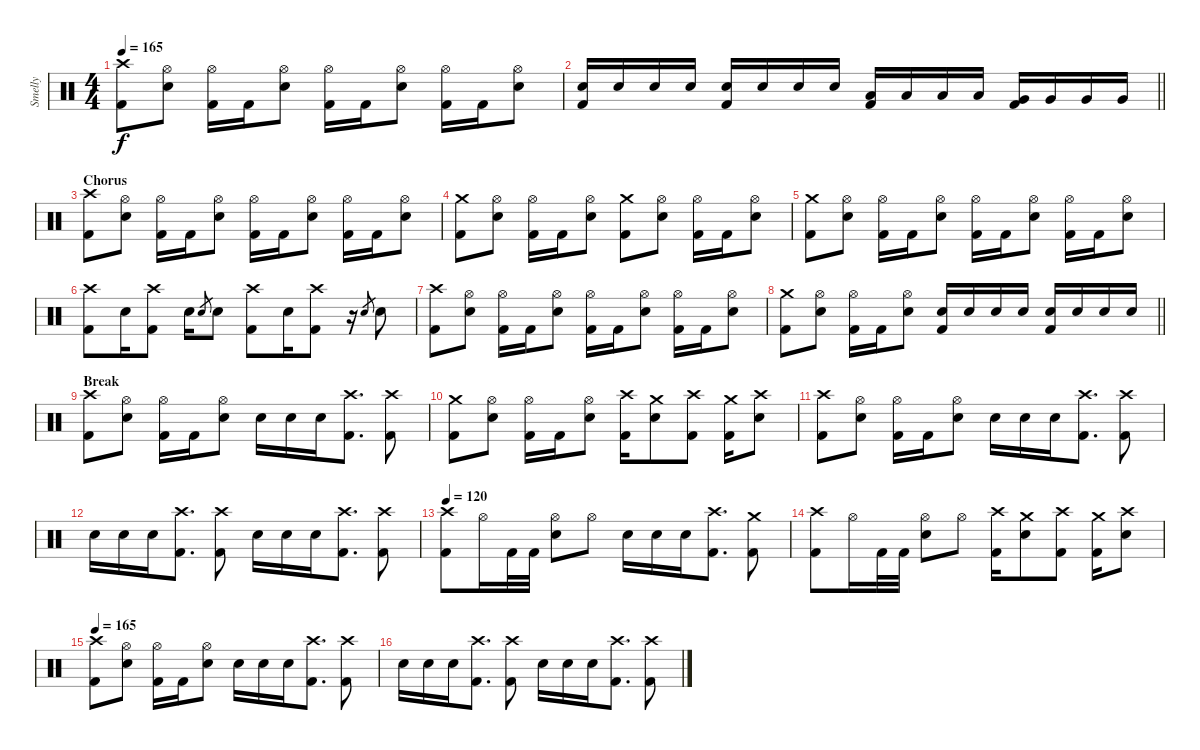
\track ("Smelly" "Smelly") {instrument percussion}
\staff {score}
\articulation defaults
\ts (4 4)
\tempo 165
\clef neutral
\ks c
("Crash high (hit)" "Kick (hit) 2").8{dy f} ("Hi-Hat (open)" "Electric Snare (hit)").8 ("Hi-Hat (open)" "Kick (hit) 2").16 "Kick (hit) 2".16 ("Hi-Hat (open)" "Electric Snare (hit)").8 ("Hi-Hat (open)" "Kick (hit) 2").16 "Kick (hit) 2".16 ("Hi-Hat (open)" "Electric Snare (hit)").8 ("Hi-Hat (open)" "Kick (hit) 2").16 "Kick (hit) 2".16 ("Hi-Hat (open)" "Electric Snare (hit)").8 |
\barLineRight lightlight
("Electric Snare (hit)" "Kick (hit) 2").16 "Electric Snare (hit)".16 "Electric Snare (hit)".16 "Electric Snare (hit)".16 ("Electric Snare (hit)" "Kick (hit) 2").16 "Electric Snare (hit)".16 "Electric Snare (hit)".16 "Electric Snare (hit)".16 ("Low Tom (hit)" "Kick (hit) 2").16 "Low Tom (hit)".16 "Low Tom (hit)".16 "Low Tom (hit)".16 ("Very Low Tom (hit)" "Kick (hit) 2").16 "Very Low Tom (hit)".16 "Very Low Tom (hit)".16 "Very Low Tom (hit)".16 |
\section ("" "Chorus")
("Crash high (hit)" "Kick (hit) 2").8 ("Hi-Hat (open)" "Electric Snare (hit)").8 ("Hi-Hat (open)" "Kick (hit) 2").16 "Kick (hit) 2".16 ("Hi-Hat (open)" "Electric Snare (hit)").8 ("Hi-Hat (open)" "Kick (hit) 2").16 "Kick (hit) 2".16 ("Hi-Hat (open)" "Electric Snare (hit)").8 ("Hi-Hat (open)" "Kick (hit) 2").16 "Kick (hit) 2".16 ("Hi-Hat (open)" "Electric Snare (hit)").8 |
("Crash medium (hit)" "Kick (hit) 2").8 ("Hi-Hat (open)" "Electric Snare (hit)").8 ("Hi-Hat (open)" "Kick (hit) 2").16 "Kick (hit) 2".16 ("Hi-Hat (open)" "Electric Snare (hit)").8 ("Crash medium (hit)" "Kick (hit) 2").8 ("Hi-Hat (open)" "Electric Snare (hit)").8 ("Hi-Hat (open)" "Kick (hit) 2").16 "Kick (hit) 2".16 ("Hi-Hat (open)" "Electric Snare (hit)").8 |
("Crash medium (hit)" "Kick (hit) 2").8 ("Hi-Hat (open)" "Electric Snare (hit)").8 ("Hi-Hat (open)" "Kick (hit) 2").16 "Kick (hit) 2".16 ("Hi-Hat (open)" "Electric Snare (hit)").8 ("Hi-Hat (open)" "Kick (hit) 2").16 "Kick (hit) 2".16 ("Hi-Hat (open)" "Electric Snare (hit)").8 ("Hi-Hat (open)" "Kick (hit) 2").16 "Kick (hit) 2".16 ("Hi-Hat (open)" "Electric Snare (hit)").8 |
("Crash high (hit)" "Kick (hit) 2").8 "Electric Snare (hit)".16 ("Crash high (hit)" "Kick (hit) 2").8 "Electric Snare (hit)".16 "Electric Snare (hit)".8{gr} "Electric Snare (hit)".8 ("Crash high (hit)" "Kick (hit) 2").8 "Electric Snare (hit)".16 ("Crash high (hit)" "Kick (hit) 2").8 r.16 "Electric Snare (hit)".8{gr} "Electric Snare (hit)".8 |
("Crash high (hit)" "Kick (hit) 2").8 ("Hi-Hat (open)" "Electric Snare (hit)").8 ("Hi-Hat (open)" "Kick (hit) 2").16 "Kick (hit) 2".16 ("Hi-Hat (open)" "Electric Snare (hit)").8 ("Hi-Hat (open)" "Kick (hit) 2").16 "Kick (hit) 2".16 ("Hi-Hat (open)" "Electric Snare (hit)").8 ("Hi-Hat (open)" "Kick (hit) 2").16 "Kick (hit) 2".16 ("Hi-Hat (open)" "Electric Snare (hit)").8 |
\barLineRight lightlight
("Crash medium (hit)" "Kick (hit) 2").8 ("Hi-Hat (open)" "Electric Snare (hit)").8 ("Hi-Hat (open)" "Kick (hit) 2").16 "Kick (hit) 2".16 ("Hi-Hat (open)" "Electric Snare (hit)").8 ("Electric Snare (hit)" "Kick (hit) 2").16 "Electric Snare (hit)".16 "Electric Snare (hit)".16 "Electric Snare (hit)".16 ("Electric Snare (hit)" "Kick (hit) 2").16 "Electric Snare (hit)".16 "Electric Snare (hit)".16 "Electric Snare (hit)".16 |
\section ("" "Break")
("Crash high (hit)" "Kick (hit) 2").8 ("Hi-Hat (open)" "Electric Snare (hit)").8 ("Hi-Hat (open)" "Kick (hit) 2").16 "Kick (hit) 2".16 ("Hi-Hat (open)" "Electric Snare (hit)").8 "Electric Snare (hit)".16 "Electric Snare (hit)".16 "Electric Snare (hit)".16 ("Crash high (hit)" "Kick (hit) 2").8{d} ("Crash high (hit)" "Kick (hit) 2").8 |
("Crash medium (hit)" "Kick (hit) 2").8 ("Hi-Hat (open)" "Electric Snare (hit)").8 ("Hi-Hat (open)" "Kick (hit) 2").16 "Kick (hit) 2".16 ("Hi-Hat (open)" "Electric Snare (hit)").8 ("Crash high (hit)" "Kick (hit) 2").16 ("Crash medium (hit)" "Electric Snare (hit)").8 ("Crash high (hit)" "Kick (hit) 2").8 ("Crash medium (hit)" "Kick (hit) 2").16 ("Crash high (hit)" "Electric Snare (hit)").8 |
("Crash high (hit)" "Kick (hit) 2").8 ("Hi-Hat (open)" "Electric Snare (hit)").8 ("Hi-Hat (open)" "Kick (hit) 2").16 "Kick (hit) 2".16 ("Hi-Hat (open)" "Electric Snare (hit)").8 "Electric Snare (hit)".16 "Electric Snare (hit)".16 "Electric Snare (hit)".16 ("Crash high (hit)" "Kick (hit) 2").8{d} ("Crash high (hit)" "Kick (hit) 2").8 |
"Electric Snare (hit)".16 "Electric Snare (hit)".16 "Electric Snare (hit)".16 ("Crash high (hit)" "Kick (hit) 2").8{d} ("Crash high (hit)" "Kick (hit) 2").8 "Electric Snare (hit)".16 "Electric Snare (hit)".16 "Electric Snare (hit)".16 ("Crash high (hit)" "Kick (hit) 2").8{d} ("Crash high (hit)" "Kick (hit) 2").8 |
\tempo 120
("Crash high (hit)" "Kick (hit) 2").8 "Hi-Hat (open)".16 "Kick (hit) 2".32 "Kick (hit) 2".32 ("Hi-Hat (open)" "Electric Snare (hit)").8 "Hi-Hat (open)".8 "Electric Snare (hit)".16 "Electric Snare (hit)".16 "Electric Snare (hit)".16 ("Crash high (hit)" "Kick (hit) 2").8{d} ("Crash medium (hit)" "Kick (hit) 2").8 |
("Crash high (hit)" "Kick (hit) 2").8 "Hi-Hat (open)".16 "Kick (hit) 2".32 "Kick (hit) 2".32 ("Hi-Hat (open)" "Electric Snare (hit)").8 "Hi-Hat (open)".8 ("Crash high (hit)" "Kick (hit) 2").16 ("Crash medium (hit)" "Electric Snare (hit)").8 ("Crash high (hit)" "Kick (hit) 2").8 ("Crash medium (hit)" "Kick (hit) 2").16 ("Crash high (hit)" "Electric Snare (hit)").8 |
\tempo 170
\tempo 165
("Crash high (hit)" "Kick (hit) 2").8 ("Hi-Hat (open)" "Electric Snare (hit)").8 ("Hi-Hat (open)" "Kick (hit) 2").16 "Kick (hit) 2".16 ("Hi-Hat (open)" "Electric Snare (hit)").8 "Electric Snare (hit)".16 "Electric Snare (hit)".16 "Electric Snare (hit)".16 ("Crash high (hit)" "Kick (hit) 2").8{d} ("Crash high (hit)" "Kick (hit) 2").8 |
"Electric Snare (hit)".16 "Electric Snare (hit)".16 "Electric Snare (hit)".16 ("Crash high (hit)" "Kick (hit) 2").8{d} ("Crash high (hit)" "Kick (hit) 2").8 "Electric Snare (hit)".16 "Electric Snare (hit)".16 "Electric Snare (hit)".16 ("Crash high (hit)" "Kick (hit) 2").8{d} ("Crash high (hit)" "Kick (hit) 2").8
